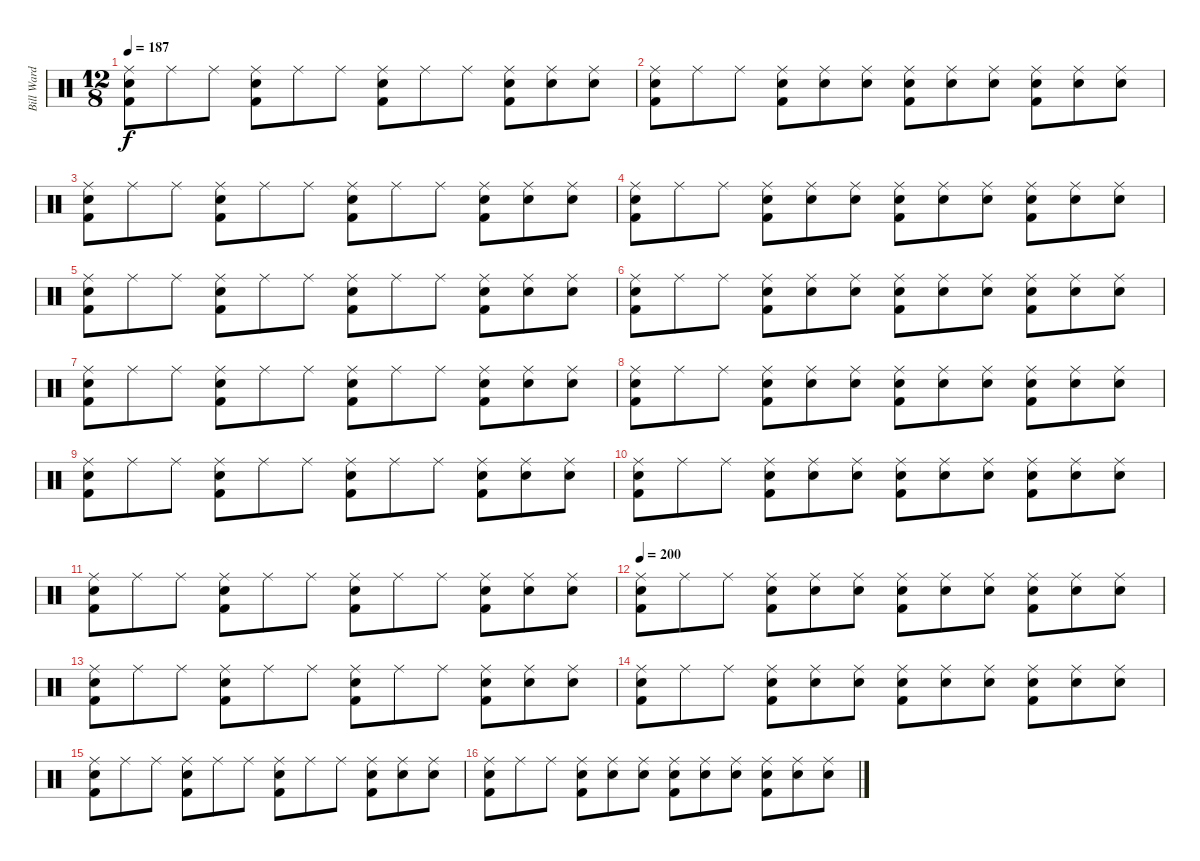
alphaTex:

\track ("Bill Ward - Drums" "Bill Ward ") {instrument percussion}
\staff {score}
\articulation defaults
\ts (12 8)
\tempo 187
\clef neutral
\ks c
("Ride (middle)" "Snare (hit) 2" "Kick (hit) 2").8{dy f} "Ride (middle)".8 "Ride (middle)".8 ("Ride (middle)" "Snare (hit) 2" "Kick (hit) 2").8 "Ride (middle)".8 "Ride (middle)".8 ("Ride (middle)" "Snare (hit) 2" "Kick (hit) 2").8 "Ride (middle)".8 "Ride (middle)".8 ("Ride (middle)" "Snare (hit) 2" "Kick (hit) 2").8 ("Ride (middle)" "Snare (hit) 2").8 ("Ride (middle)" "Snare (hit) 2").8 |
("Ride (middle)" "Snare (hit) 2" "Kick (hit) 2").8 "Ride (middle)".8 "Ride (middle)".8 ("Ride (middle)" "Snare (hit) 2" "Kick (hit) 2").8 ("Ride (middle)" "Snare (hit) 2").8 ("Ride (middle)" "Snare (hit) 2").8 ("Ride (middle)" "Snare (hit) 2" "Kick (hit) 2").8 ("Ride (middle)" "Snare (hit) 2").8 ("Ride (middle)" "Snare (hit) 2").8 ("Ride (middle)" "Snare (hit) 2" "Kick (hit) 2").8 ("Ride (middle)" "Snare (hit) 2").8 ("Ride (middle)" "Snare (hit) 2").8 |
("Ride (middle)" "Snare (hit) 2" "Kick (hit) 2").8 "Ride (middle)".8 "Ride (middle)".8 ("Ride (middle)" "Snare (hit) 2" "Kick (hit) 2").8 "Ride (middle)".8 "Ride (middle)".8 ("Ride (middle)" "Snare (hit) 2" "Kick (hit) 2").8 "Ride (middle)".8 "Ride (middle)".8 ("Ride (middle)" "Snare (hit) 2" "Kick (hit) 2").8 ("Ride (middle)" "Snare (hit) 2").8 ("Ride (middle)" "Snare (hit) 2").8 |
("Ride (middle)" "Snare (hit) 2" "Kick (hit) 2").8 "Ride (middle)".8 "Ride (middle)".8 ("Ride (middle)" "Snare (hit) 2" "Kick (hit) 2").8 ("Ride (middle)" "Snare (hit) 2").8 ("Ride (middle)" "Snare (hit) 2").8 ("Ride (middle)" "Snare (hit) 2" "Kick (hit) 2").8 ("Ride (middle)" "Snare (hit) 2").8 ("Ride (middle)" "Snare (hit) 2").8 ("Ride (middle)" "Snare (hit) 2" "Kick (hit) 2").8 ("Ride (middle)" "Snare (hit) 2").8 ("Ride (middle)" "Snare (hit) 2").8 |
("Ride (middle)" "Snare (hit) 2" "Kick (hit) 2").8 "Ride (middle)".8 "Ride (middle)".8 ("Ride (middle)" "Snare (hit) 2" "Kick (hit) 2").8 "Ride (middle)".8 "Ride (middle)".8 ("Ride (middle)" "Snare (hit) 2" "Kick (hit) 2").8 "Ride (middle)".8 "Ride (middle)".8 ("Ride (middle)" "Snare (hit) 2" "Kick (hit) 2").8 ("Ride (middle)" "Snare (hit) 2").8 ("Ride (middle)" "Snare (hit) 2").8 |
("Ride (middle)" "Snare (hit) 2" "Kick (hit) 2").8 "Ride (middle)".8 "Ride (middle)".8 ("Ride (middle)" "Snare (hit) 2" "Kick (hit) 2").8 ("Ride (middle)" "Snare (hit) 2").8 ("Ride (middle)" "Snare (hit) 2").8 ("Ride (middle)" "Snare (hit) 2" "Kick (hit) 2").8 ("Ride (middle)" "Snare (hit) 2").8 ("Ride (middle)" "Snare (hit) 2").8 ("Ride (middle)" "Snare (hit) 2" "Kick (hit) 2").8 ("Ride (middle)" "Snare (hit) 2").8 ("Ride (middle)" "Snare (hit) 2").8 |
("Ride (middle)" "Snare (hit) 2" "Kick (hit) 2").8 "Ride (middle)".8 "Ride (middle)".8 ("Ride (middle)" "Snare (hit) 2" "Kick (hit) 2").8 "Ride (middle)".8 "Ride (middle)".8 ("Ride (middle)" "Snare (hit) 2" "Kick (hit) 2").8 "Ride (middle)".8 "Ride (middle)".8 ("Ride (middle)" "Snare (hit) 2" "Kick (hit) 2").8 ("Ride (middle)" "Snare (hit) 2").8 ("Ride (middle)" "Snare (hit) 2").8 |
("Ride (middle)" "Snare (hit) 2" "Kick (hit) 2").8 "Ride (middle)".8 "Ride (middle)".8 ("Ride (middle)" "Snare (hit) 2" "Kick (hit) 2").8 ("Ride (middle)" "Snare (hit) 2").8 ("Ride (middle)" "Snare (hit) 2").8 ("Ride (middle)" "Snare (hit) 2" "Kick (hit) 2").8 ("Ride (middle)" "Snare (hit) 2").8 ("Ride (middle)" "Snare (hit) 2").8 ("Ride (middle)" "Snare (hit) 2" "Kick (hit) 2").8 ("Ride (middle)" "Snare (hit) 2").8 ("Ride (middle)" "Snare (hit) 2").8 |
("Ride (middle)" "Snare (hit) 2" "Kick (hit) 2").8 "Ride (middle)".8 "Ride (middle)".8 ("Ride (middle)" "Snare (hit) 2" "Kick (hit) 2").8 "Ride (middle)".8 "Ride (middle)".8 ("Ride (middle)" "Snare (hit) 2" "Kick (hit) 2").8 "Ride (middle)".8 "Ride (middle)".8 ("Ride (middle)" "Snare (hit) 2" "Kick (hit) 2").8 ("Ride (middle)" "Snare (hit) 2").8 ("Ride (middle)" "Snare (hit) 2").8 |
("Ride (middle)" "Snare (hit) 2" "Kick (hit) 2").8 "Ride (middle)".8 "Ride (middle)".8 ("Ride (middle)" "Snare (hit) 2" "Kick (hit) 2").8 ("Ride (middle)" "Snare (hit) 2").8 ("Ride (middle)" "Snare (hit) 2").8 ("Ride (middle)" "Snare (hit) 2" "Kick (hit) 2").8 ("Ride (middle)" "Snare (hit) 2").8 ("Ride (middle)" "Snare (hit) 2").8 ("Ride (middle)" "Snare (hit) 2" "Kick (hit) 2").8 ("Ride (middle)" "Snare (hit) 2").8 ("Ride (middle)" "Snare (hit) 2").8 |
("Ride (middle)" "Snare (hit) 2" "Kick (hit) 2").8 "Ride (middle)".8 "Ride (middle)".8 ("Ride (middle)" "Snare (hit) 2" "Kick (hit) 2").8 "Ride (middle)".8 "Ride (middle)".8 ("Ride (middle)" "Snare (hit) 2" "Kick (hit) 2").8 "Ride (middle)".8 "Ride (middle)".8 ("Ride (middle)" "Snare (hit) 2" "Kick (hit) 2").8 ("Ride (middle)" "Snare (hit) 2").8 ("Ride (middle)" "Snare (hit) 2").8 |
\tempo 200
("Ride (middle)" "Snare (hit) 2" "Kick (hit) 2").8 "Ride (middle)".8 "Ride (middle)".8 ("Ride (middle)" "Snare (hit) 2" "Kick (hit) 2").8 ("Ride (middle)" "Snare (hit) 2").8 ("Ride (middle)" "Snare (hit) 2").8 ("Ride (middle)" "Snare (hit) 2" "Kick (hit) 2").8 ("Ride (middle)" "Snare (hit) 2").8 ("Ride (middle)" "Snare (hit) 2").8 ("Ride (middle)" "Snare (hit) 2" "Kick (hit) 2").8 ("Ride (middle)" "Snare (hit) 2").8 ("Ride (middle)" "Snare (hit) 2").8 |
("Ride (middle)" "Snare (hit) 2" "Kick (hit) 2").8 "Ride (middle)".8 "Ride (middle)".8 ("Ride (middle)" "Snare (hit) 2" "Kick (hit) 2").8 "Ride (middle)".8 "Ride (middle)".8 ("Ride (middle)" "Snare (hit) 2" "Kick (hit) 2").8 "Ride (middle)".8 "Ride (middle)".8 ("Ride (middle)" "Snare (hit) 2" "Kick (hit) 2").8 ("Ride (middle)" "Snare (hit) 2").8 ("Ride (middle)" "Snare (hit) 2").8 |
("Ride (middle)" "Snare (hit) 2" "Kick (hit) 2").8 "Ride (middle)".8 "Ride (middle)".8 ("Ride (middle)" "Snare (hit) 2" "Kick (hit) 2").8 ("Ride (middle)" "Snare (hit) 2").8 ("Ride (middle)" "Snare (hit) 2").8 ("Ride (middle)" "Snare (hit) 2" "Kick (hit) 2").8 ("Ride (middle)" "Snare (hit) 2").8 ("Ride (middle)" "Snare (hit) 2").8 ("Ride (middle)" "Snare (hit) 2" "Kick (hit) 2").8 ("Ride (middle)" "Snare (hit) 2").8 ("Ride (middle)" "Snare (hit) 2").8 |
("Ride (middle)" "Snare (hit) 2" "Kick (hit) 2").8 "Ride (middle)".8 "Ride (middle)".8 ("Ride (middle)" "Snare (hit) 2" "Kick (hit) 2").8 "Ride (middle)".8 "Ride (middle)".8 ("Ride (middle)" "Snare (hit) 2" "Kick (hit) 2").8 "Ride (middle)".8 "Ride (middle)".8 ("Ride (middle)" "Snare (hit) 2" "Kick (hit) 2").8 ("Ride (middle)" "Snare (hit) 2").8 ("Ride (middle)" "Snare (hit) 2").8 |
("Ride (middle)" "Snare (hit) 2" "Kick (hit) 2").8 "Ride (middle)".8 "Ride (middle)".8 ("Ride (middle)" "Snare (hit) 2" "Kick (hit) 2").8 ("Ride (middle)" "Snare (hit) 2").8 ("Ride (middle)" "Snare (hit) 2").8 ("Ride (middle)" "Snare (hit) 2" "Kick (hit) 2").8 ("Ride (middle)" "Snare (hit) 2").8 ("Ride (middle)" "Snare (hit) 2").8 ("Ride (middle)" "Snare (hit) 2" "Kick (hit) 2").8 ("Ride (middle)" "Snare (hit) 2").8 ("Ride (middle)" "Snare (hit) 2").8
